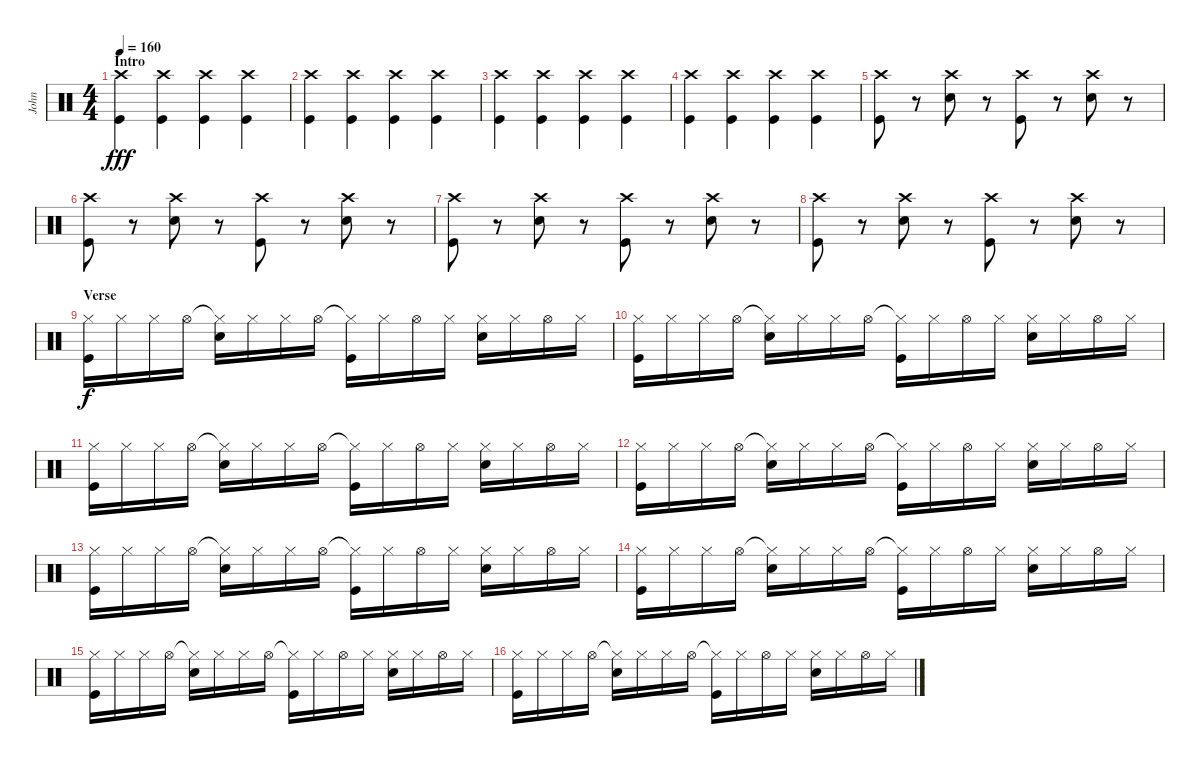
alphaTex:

\track ("John" "John") {instrument percussion}
\staff {score}
\articulation defaults
\ts (4 4)
\section ("" "Intro")
\tempo 160
\clef neutral
\ks c
("Crash high (hit)" "Kick (hit)").4{dy fff} ("Crash high (hit)" "Kick (hit)").4 ("Crash high (hit)" "Kick (hit)").4 ("Crash high (hit)" "Kick (hit)").4 |
("Crash high (hit)" "Kick (hit)").4 ("Crash high (hit)" "Kick (hit)").4 ("Crash high (hit)" "Kick (hit)").4 ("Crash high (hit)" "Kick (hit)").4 |
("Crash high (hit)" "Kick (hit)").4 ("Crash high (hit)" "Kick (hit)").4 ("Crash high (hit)" "Kick (hit)").4 ("Crash high (hit)" "Kick (hit)").4 |
("Crash high (hit)" "Kick (hit)").4 ("Crash high (hit)" "Kick (hit)").4 ("Crash high (hit)" "Kick (hit)").4 ("Crash high (hit)" "Kick (hit)").4 |
("Crash high (hit)" "Kick (hit)").8 r.8 ("Crash high (hit)" "Electric Snare (hit)").8 r.8 ("Crash high (hit)" "Kick (hit)").8 r.8 ("Crash high (hit)" "Electric Snare (hit)").8 r.8 |
("Crash high (hit)" "Kick (hit)").8 r.8 ("Crash high (hit)" "Electric Snare (hit)").8 r.8 ("Crash high (hit)" "Kick (hit)").8 r.8 ("Crash high (hit)" "Electric Snare (hit)").8 r.8 |
("Crash high (hit)" "Kick (hit)").8 r.8 ("Crash high (hit)" "Electric Snare (hit)").8 r.8 ("Crash high (hit)" "Kick (hit)").8 r.8 ("Crash high (hit)" "Electric Snare (hit)").8 r.8 |
("Crash high (hit)" "Kick (hit)").8 r.8 ("Crash high (hit)" "Electric Snare (hit)").8 r.8 ("Crash high (hit)" "Kick (hit)").8 r.8 ("Crash high (hit)" "Electric Snare (hit)").8 r.8 |
\section ("" "Verse")
("Hi-Hat (closed)" "Kick (hit)").16{dy f} "Hi-Hat (closed)".16 "Hi-Hat (closed)".16 "Hi-Hat (open)".16 ("Hi-Hat (closed)"{t} "Electric Snare (hit)").16 "Hi-Hat (closed)".16 "Hi-Hat (closed)".16 "Hi-Hat (open)".16 ("Hi-Hat (closed)"{t} "Kick (hit)").16 "Hi-Hat (closed)".16 "Hi-Hat (open)".16 "Hi-Hat (closed)".16 ("Hi-Hat (closed)" "Electric Snare (hit)").16 "Hi-Hat (closed)".16 "Hi-Hat (open)".16 "Hi-Hat (closed)".16 |
("Hi-Hat (closed)" "Kick (hit)").16 "Hi-Hat (closed)".16 "Hi-Hat (closed)".16 "Hi-Hat (open)".16 ("Hi-Hat (closed)"{t} "Electric Snare (hit)").16 "Hi-Hat (closed)".16 "Hi-Hat (closed)".16 "Hi-Hat (open)".16 ("Hi-Hat (closed)"{t} "Kick (hit)").16 "Hi-Hat (closed)".16 "Hi-Hat (open)".16 "Hi-Hat (closed)".16 ("Hi-Hat (closed)" "Electric Snare (hit)").16 "Hi-Hat (closed)".16 "Hi-Hat (open)".16 "Hi-Hat (closed)".16 |
("Hi-Hat (closed)" "Kick (hit)").16 "Hi-Hat (closed)".16 "Hi-Hat (closed)".16 "Hi-Hat (open)".16 ("Hi-Hat (closed)"{t} "Electric Snare (hit)").16 "Hi-Hat (closed)".16 "Hi-Hat (closed)".16 "Hi-Hat (open)".16 ("Hi-Hat (closed)"{t} "Kick (hit)").16 "Hi-Hat (closed)".16 "Hi-Hat (open)".16 "Hi-Hat (closed)".16 ("Hi-Hat (closed)" "Electric Snare (hit)").16 "Hi-Hat (closed)".16 "Hi-Hat (open)".16 "Hi-Hat (closed)".16 |
("Hi-Hat (closed)" "Kick (hit)").16 "Hi-Hat (closed)".16 "Hi-Hat (closed)".16 "Hi-Hat (open)".16 ("Hi-Hat (closed)"{t} "Electric Snare (hit)").16 "Hi-Hat (closed)".16 "Hi-Hat (closed)".16 "Hi-Hat (open)".16 ("Hi-Hat (closed)"{t} "Kick (hit)").16 "Hi-Hat (closed)".16 "Hi-Hat (open)".16 "Hi-Hat (closed)".16 ("Hi-Hat (closed)" "Electric Snare (hit)").16 "Hi-Hat (closed)".16 "Hi-Hat (open)".16 "Hi-Hat (closed)".16 |
("Hi-Hat (closed)" "Kick (hit)").16 "Hi-Hat (closed)".16 "Hi-Hat (closed)".16 "Hi-Hat (open)".16 ("Hi-Hat (closed)"{t} "Electric Snare (hit)").16 "Hi-Hat (closed)".16 "Hi-Hat (closed)".16 "Hi-Hat (open)".16 ("Hi-Hat (closed)"{t} "Kick (hit)").16 "Hi-Hat (closed)".16 "Hi-Hat (open)".16 "Hi-Hat (closed)".16 ("Hi-Hat (closed)" "Electric Snare (hit)").16 "Hi-Hat (closed)".16 "Hi-Hat (open)".16 "Hi-Hat (closed)".16 |
("Hi-Hat (closed)" "Kick (hit)").16 "Hi-Hat (closed)".16 "Hi-Hat (closed)".16 "Hi-Hat (open)".16 ("Hi-Hat (closed)"{t} "Electric Snare (hit)").16 "Hi-Hat (closed)".16 "Hi-Hat (closed)".16 "Hi-Hat (open)".16 ("Hi-Hat (closed)"{t} "Kick (hit)").16 "Hi-Hat (closed)".16 "Hi-Hat (open)".16 "Hi-Hat (closed)".16 ("Hi-Hat (closed)" "Electric Snare (hit)").16 "Hi-Hat (closed)".16 "Hi-Hat (open)".16 "Hi-Hat (closed)".16 |
("Hi-Hat (closed)" "Kick (hit)").16 "Hi-Hat (closed)".16 "Hi-Hat (closed)".16 "Hi-Hat (open)".16 ("Hi-Hat (closed)"{t} "Electric Snare (hit)").16 "Hi-Hat (closed)".16 "Hi-Hat (closed)".16 "Hi-Hat (open)".16 ("Hi-Hat (closed)"{t} "Kick (hit)").16 "Hi-Hat (closed)".16 "Hi-Hat (open)".16 "Hi-Hat (closed)".16 ("Hi-Hat (closed)" "Electric Snare (hit)").16 "Hi-Hat (closed)".16 "Hi-Hat (open)".16 "Hi-Hat (closed)".16 |
("Hi-Hat (closed)" "Kick (hit)").16 "Hi-Hat (closed)".16 "Hi-Hat (closed)".16 "Hi-Hat (open)".16 ("Hi-Hat (closed)"{t} "Electric Snare (hit)").16 "Hi-Hat (closed)".16 "Hi-Hat (closed)".16 "Hi-Hat (open)".16 ("Hi-Hat (closed)"{t} "Kick (hit)").16 "Hi-Hat (closed)".16 "Hi-Hat (open)".16 "Hi-Hat (closed)".16 ("Hi-Hat (closed)" "Electric Snare (hit)").16 "Hi-Hat (closed)".16 "Hi-Hat (open)".16 "Hi-Hat (closed)".16
